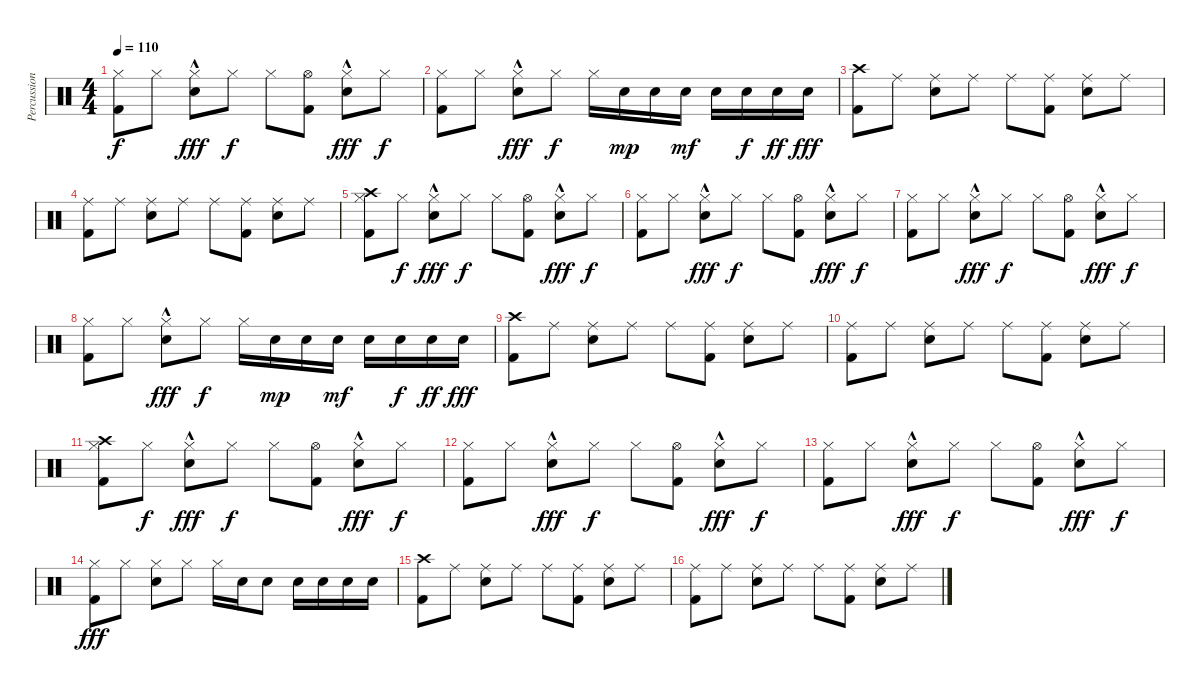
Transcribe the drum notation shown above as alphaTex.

\track ("Percussion" "Percussion") {instrument percussion}
\staff {score}
\articulation defaults
\ts (4 4)
\tempo 110
\clef neutral
\ks c
("Hi-Hat (closed)" "Kick (hit) 2").8{dy f} "Hi-Hat (closed)".8 ("Hi-Hat (closed)"{hac} "Electric Snare (hit)").8{dy fff} "Hi-Hat (closed)".8{dy f} "Hi-Hat (closed)".8 ("Hi-Hat (open)" "Kick (hit) 2").8 ("Hi-Hat (closed)"{hac} "Electric Snare (hit)").8{dy fff} "Hi-Hat (closed)".8{dy f} |
("Hi-Hat (closed)" "Kick (hit) 2").8 "Hi-Hat (closed)".8 ("Hi-Hat (closed)"{hac} "Electric Snare (hit)").8{dy fff} "Hi-Hat (closed)".8{dy f} "Hi-Hat (closed)".16 "Electric Snare (hit)".16{dy mp} "Electric Snare (hit)".16 "Electric Snare (hit)".16{dy mf} "Electric Snare (hit)".16 "Electric Snare (hit)".16{dy f} "Electric Snare (hit)".16{dy ff} "Electric Snare (hit)".16{dy fff} |
("Crash high (hit)" "Kick (hit) 2").8 "Ride (middle)".8 ("Ride (middle)" "Electric Snare (hit)").8 "Ride (middle)".8 "Ride (middle)".8 ("Ride (middle)" "Kick (hit) 2").8 ("Ride (middle)" "Electric Snare (hit)").8 "Ride (middle)".8 |
("Ride (middle)" "Kick (hit) 2").8 "Ride (middle)".8 ("Ride (middle)" "Electric Snare (hit)").8 "Ride (middle)".8 "Ride (middle)".8 ("Ride (middle)" "Kick (hit) 2").8 ("Ride (middle)" "Electric Snare (hit)").8 "Ride (middle)".8 |
("Crash high (hit)" "Hi-Hat (closed)" "Kick (hit) 2").8 "Hi-Hat (closed)".8{dy f} ("Hi-Hat (closed)"{hac} "Electric Snare (hit)").8{dy fff} "Hi-Hat (closed)".8{dy f} "Hi-Hat (closed)".8 ("Hi-Hat (open)" "Kick (hit) 2").8 ("Hi-Hat (closed)"{hac} "Electric Snare (hit)").8{dy fff} "Hi-Hat (closed)".8{dy f} |
("Hi-Hat (closed)" "Kick (hit) 2").8 "Hi-Hat (closed)".8 ("Hi-Hat (closed)"{hac} "Electric Snare (hit)").8{dy fff} "Hi-Hat (closed)".8{dy f} "Hi-Hat (closed)".8 ("Hi-Hat (open)" "Kick (hit) 2").8 ("Hi-Hat (closed)"{hac} "Electric Snare (hit)").8{dy fff} "Hi-Hat (closed)".8{dy f} |
("Hi-Hat (closed)" "Kick (hit) 2").8 "Hi-Hat (closed)".8 ("Hi-Hat (closed)"{hac} "Electric Snare (hit)").8{dy fff} "Hi-Hat (closed)".8{dy f} "Hi-Hat (closed)".8 ("Hi-Hat (open)" "Kick (hit) 2").8 ("Hi-Hat (closed)"{hac} "Electric Snare (hit)").8{dy fff} "Hi-Hat (closed)".8{dy f} |
("Hi-Hat (closed)" "Kick (hit) 2").8 "Hi-Hat (closed)".8 ("Hi-Hat (closed)"{hac} "Electric Snare (hit)").8{dy fff} "Hi-Hat (closed)".8{dy f} "Hi-Hat (closed)".16 "Electric Snare (hit)".16{dy mp} "Electric Snare (hit)".16 "Electric Snare (hit)".16{dy mf} "Electric Snare (hit)".16 "Electric Snare (hit)".16{dy f} "Electric Snare (hit)".16{dy ff} "Electric Snare (hit)".16{dy fff} |
("Crash high (hit)" "Kick (hit) 2").8 "Ride (middle)".8 ("Ride (middle)" "Electric Snare (hit)").8 "Ride (middle)".8 "Ride (middle)".8 ("Ride (middle)" "Kick (hit) 2").8 ("Ride (middle)" "Electric Snare (hit)").8 "Ride (middle)".8 |
("Ride (middle)" "Kick (hit) 2").8 "Ride (middle)".8 ("Ride (middle)" "Electric Snare (hit)").8 "Ride (middle)".8 "Ride (middle)".8 ("Ride (middle)" "Kick (hit) 2").8 ("Ride (middle)" "Electric Snare (hit)").8 "Ride (middle)".8 |
("Crash high (hit)" "Hi-Hat (closed)" "Kick (hit) 2").8 "Hi-Hat (closed)".8{dy f} ("Hi-Hat (closed)"{hac} "Electric Snare (hit)").8{dy fff} "Hi-Hat (closed)".8{dy f} "Hi-Hat (closed)".8 ("Hi-Hat (open)" "Kick (hit) 2").8 ("Hi-Hat (closed)"{hac} "Electric Snare (hit)").8{dy fff} "Hi-Hat (closed)".8{dy f} |
("Hi-Hat (closed)" "Kick (hit) 2").8 "Hi-Hat (closed)".8 ("Hi-Hat (closed)"{hac} "Electric Snare (hit)").8{dy fff} "Hi-Hat (closed)".8{dy f} "Hi-Hat (closed)".8 ("Hi-Hat (open)" "Kick (hit) 2").8 ("Hi-Hat (closed)"{hac} "Electric Snare (hit)").8{dy fff} "Hi-Hat (closed)".8{dy f} |
("Hi-Hat (closed)" "Kick (hit) 2").8 "Hi-Hat (closed)".8 ("Hi-Hat (closed)"{hac} "Electric Snare (hit)").8{dy fff} "Hi-Hat (closed)".8{dy f} "Hi-Hat (closed)".8 ("Hi-Hat (open)" "Kick (hit) 2").8 ("Hi-Hat (closed)"{hac} "Electric Snare (hit)").8{dy fff} "Hi-Hat (closed)".8{dy f} |
("Hi-Hat (closed)" "Kick (hit) 2").8{dy fff} "Hi-Hat (closed)".8 ("Hi-Hat (closed)" "Electric Snare (hit)").8 "Hi-Hat (closed)".8 "Hi-Hat (closed)".16 "Electric Snare (hit)".16 "Electric Snare (hit)".8 "Electric Snare (hit)".16 "Electric Snare (hit)".16 "Electric Snare (hit)".16 "Electric Snare (hit)".16 |
("Crash high (hit)" "Kick (hit) 2").8 "Ride (middle)".8 ("Ride (middle)" "Electric Snare (hit)").8 "Ride (middle)".8 "Ride (middle)".8 ("Ride (middle)" "Kick (hit) 2").8 ("Ride (middle)" "Electric Snare (hit)").8 "Ride (middle)".8 |
("Ride (middle)" "Kick (hit) 2").8 "Ride (middle)".8 ("Ride (middle)" "Electric Snare (hit)").8 "Ride (middle)".8 "Ride (middle)".8 ("Ride (middle)" "Kick (hit) 2").8 ("Ride (middle)" "Electric Snare (hit)").8 "Ride (middle)".8
